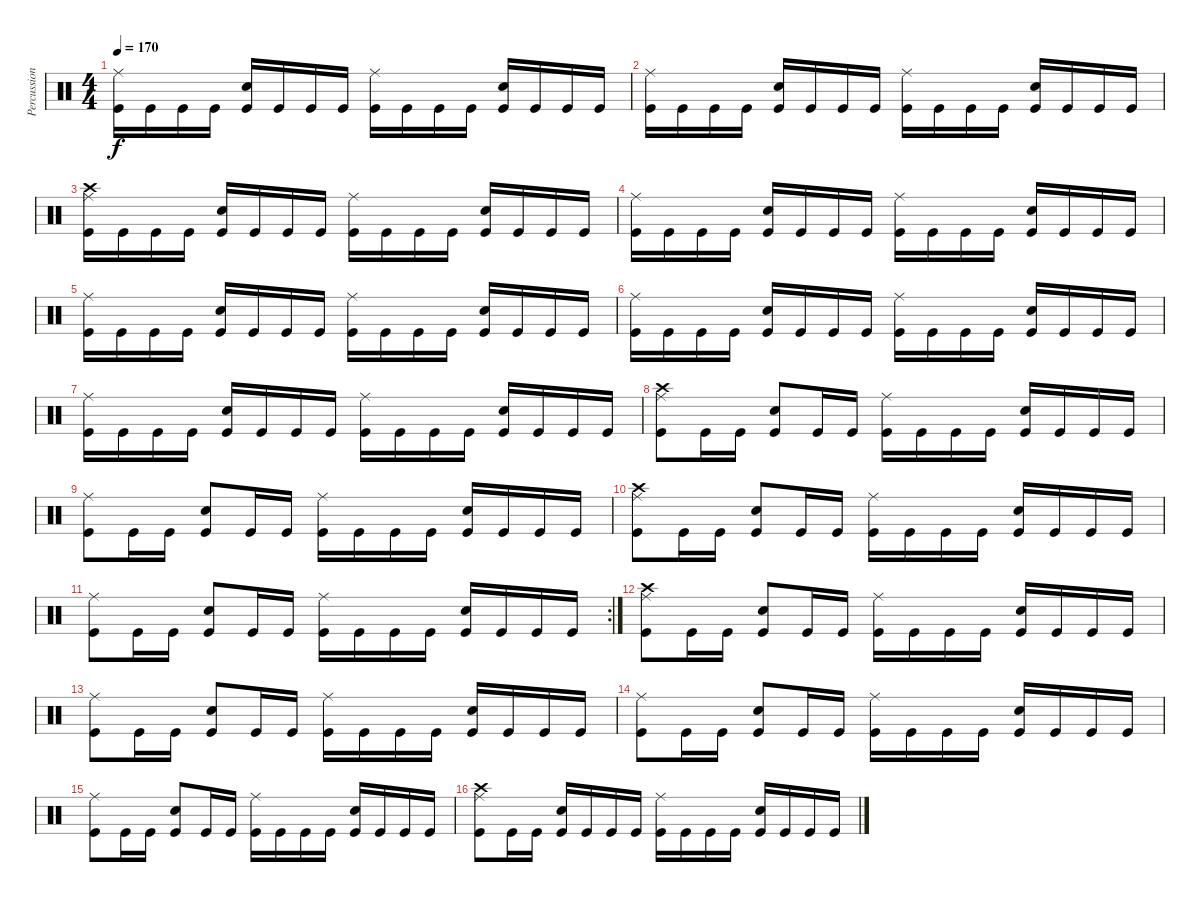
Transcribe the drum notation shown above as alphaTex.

\track ("Percussion" "Percussion") {instrument percussion}
\staff {score}
\articulation defaults
\ts (4 4)
\tempo 170
\clef neutral
\ks c
("Ride (middle)" "Kick (hit)").16{dy f} "Kick (hit)".16 "Kick (hit)".16 "Kick (hit)".16 ("Snare (hit) 2" "Kick (hit)").16 "Kick (hit)".16 "Kick (hit)".16 "Kick (hit)".16 ("Ride (middle)" "Kick (hit)").16 "Kick (hit)".16 "Kick (hit)".16 "Kick (hit)".16 ("Snare (hit) 2" "Kick (hit)").16 "Kick (hit)".16 "Kick (hit)".16 "Kick (hit)".16 |
("Ride (middle)" "Kick (hit)").16 "Kick (hit)".16 "Kick (hit)".16 "Kick (hit)".16 ("Snare (hit) 2" "Kick (hit)").16 "Kick (hit)".16 "Kick (hit)".16 "Kick (hit)".16 ("Ride (middle)" "Kick (hit)").16 "Kick (hit)".16 "Kick (hit)".16 "Kick (hit)".16 ("Snare (hit) 2" "Kick (hit)").16 "Kick (hit)".16 "Kick (hit)".16 "Kick (hit)".16 |
("Ride (middle)" "Crash high (hit)" "Kick (hit)").16 "Kick (hit)".16 "Kick (hit)".16 "Kick (hit)".16 ("Snare (hit) 2" "Kick (hit)").16 "Kick (hit)".16 "Kick (hit)".16 "Kick (hit)".16 ("Ride (middle)" "Kick (hit)").16 "Kick (hit)".16 "Kick (hit)".16 "Kick (hit)".16 ("Snare (hit) 2" "Kick (hit)").16 "Kick (hit)".16 "Kick (hit)".16 "Kick (hit)".16 |
("Ride (middle)" "Kick (hit)").16 "Kick (hit)".16 "Kick (hit)".16 "Kick (hit)".16 ("Snare (hit) 2" "Kick (hit)").16 "Kick (hit)".16 "Kick (hit)".16 "Kick (hit)".16 ("Ride (middle)" "Kick (hit)").16 "Kick (hit)".16 "Kick (hit)".16 "Kick (hit)".16 ("Snare (hit) 2" "Kick (hit)").16 "Kick (hit)".16 "Kick (hit)".16 "Kick (hit)".16 |
("Ride (middle)" "Kick (hit)").16 "Kick (hit)".16 "Kick (hit)".16 "Kick (hit)".16 ("Snare (hit) 2" "Kick (hit)").16 "Kick (hit)".16 "Kick (hit)".16 "Kick (hit)".16 ("Ride (middle)" "Kick (hit)").16 "Kick (hit)".16 "Kick (hit)".16 "Kick (hit)".16 ("Snare (hit) 2" "Kick (hit)").16 "Kick (hit)".16 "Kick (hit)".16 "Kick (hit)".16 |
("Ride (middle)" "Kick (hit)").16 "Kick (hit)".16 "Kick (hit)".16 "Kick (hit)".16 ("Snare (hit) 2" "Kick (hit)").16 "Kick (hit)".16 "Kick (hit)".16 "Kick (hit)".16 ("Ride (middle)" "Kick (hit)").16 "Kick (hit)".16 "Kick (hit)".16 "Kick (hit)".16 ("Snare (hit) 2" "Kick (hit)").16 "Kick (hit)".16 "Kick (hit)".16 "Kick (hit)".16 |
("Ride (middle)" "Kick (hit)").16 "Kick (hit)".16 "Kick (hit)".16 "Kick (hit)".16 ("Snare (hit) 2" "Kick (hit)").16 "Kick (hit)".16 "Kick (hit)".16 "Kick (hit)".16 ("Ride (middle)" "Kick (hit)").16 "Kick (hit)".16 "Kick (hit)".16 "Kick (hit)".16 ("Snare (hit) 2" "Kick (hit)").16 "Kick (hit)".16 "Kick (hit)".16 "Kick (hit)".16 |
("Ride (middle)" "Crash high (hit)" "Kick (hit)").8 "Kick (hit)".16 "Kick (hit)".16 ("Snare (hit) 2" "Kick (hit)").8 "Kick (hit)".16 "Kick (hit)".16 ("Ride (middle)" "Kick (hit)").16 "Kick (hit)".16 "Kick (hit)".16 "Kick (hit)".16 ("Snare (hit) 2" "Kick (hit)").16 "Kick (hit)".16 "Kick (hit)".16 "Kick (hit)".16 |
("Ride (middle)" "Kick (hit)").8 "Kick (hit)".16 "Kick (hit)".16 ("Snare (hit) 2" "Kick (hit)").8 "Kick (hit)".16 "Kick (hit)".16 ("Ride (middle)" "Kick (hit)").16 "Kick (hit)".16 "Kick (hit)".16 "Kick (hit)".16 ("Snare (hit) 2" "Kick (hit)").16 "Kick (hit)".16 "Kick (hit)".16 "Kick (hit)".16 |
("Ride (middle)" "Crash high (hit)" "Kick (hit)").8 "Kick (hit)".16 "Kick (hit)".16 ("Snare (hit) 2" "Kick (hit)").8 "Kick (hit)".16 "Kick (hit)".16 ("Ride (middle)" "Kick (hit)").16 "Kick (hit)".16 "Kick (hit)".16 "Kick (hit)".16 ("Snare (hit) 2" "Kick (hit)").16 "Kick (hit)".16 "Kick (hit)".16 "Kick (hit)".16 |
\rc 2
("Ride (middle)" "Kick (hit)").8 "Kick (hit)".16 "Kick (hit)".16 ("Snare (hit) 2" "Kick (hit)").8 "Kick (hit)".16 "Kick (hit)".16 ("Ride (middle)" "Kick (hit)").16 "Kick (hit)".16 "Kick (hit)".16 "Kick (hit)".16 ("Snare (hit) 2" "Kick (hit)").16 "Kick (hit)".16 "Kick (hit)".16 "Kick (hit)".16 |
("Ride (middle)" "Crash high (hit)" "Kick (hit)").8 "Kick (hit)".16 "Kick (hit)".16 ("Snare (hit) 2" "Kick (hit)").8 "Kick (hit)".16 "Kick (hit)".16 ("Ride (middle)" "Kick (hit)").16 "Kick (hit)".16 "Kick (hit)".16 "Kick (hit)".16 ("Snare (hit) 2" "Kick (hit)").16 "Kick (hit)".16 "Kick (hit)".16 "Kick (hit)".16 |
("Ride (middle)" "Kick (hit)").8 "Kick (hit)".16 "Kick (hit)".16 ("Snare (hit) 2" "Kick (hit)").8 "Kick (hit)".16 "Kick (hit)".16 ("Ride (middle)" "Kick (hit)").16 "Kick (hit)".16 "Kick (hit)".16 "Kick (hit)".16 ("Snare (hit) 2" "Kick (hit)").16 "Kick (hit)".16 "Kick (hit)".16 "Kick (hit)".16 |
("Ride (middle)" "Kick (hit)").8 "Kick (hit)".16 "Kick (hit)".16 ("Snare (hit) 2" "Kick (hit)").8 "Kick (hit)".16 "Kick (hit)".16 ("Ride (middle)" "Kick (hit)").16 "Kick (hit)".16 "Kick (hit)".16 "Kick (hit)".16 ("Snare (hit) 2" "Kick (hit)").16 "Kick (hit)".16 "Kick (hit)".16 "Kick (hit)".16 |
("Ride (middle)" "Kick (hit)").8 "Kick (hit)".16 "Kick (hit)".16 ("Snare (hit) 2" "Kick (hit)").8 "Kick (hit)".16 "Kick (hit)".16 ("Ride (middle)" "Kick (hit)").16 "Kick (hit)".16 "Kick (hit)".16 "Kick (hit)".16 ("Snare (hit) 2" "Kick (hit)").16 "Kick (hit)".16 "Kick (hit)".16 "Kick (hit)".16 |
("Ride (middle)" "Crash high (hit)" "Kick (hit)").8 "Kick (hit)".16 "Kick (hit)".16 ("Snare (hit) 2" "Kick (hit)").16 "Kick (hit)".16 "Kick (hit)".16 "Kick (hit)".16 ("Ride (middle)" "Kick (hit)").16 "Kick (hit)".16 "Kick (hit)".16 "Kick (hit)".16 ("Snare (hit) 2" "Kick (hit)").16 "Kick (hit)".16 "Kick (hit)".16 "Kick (hit)".16
